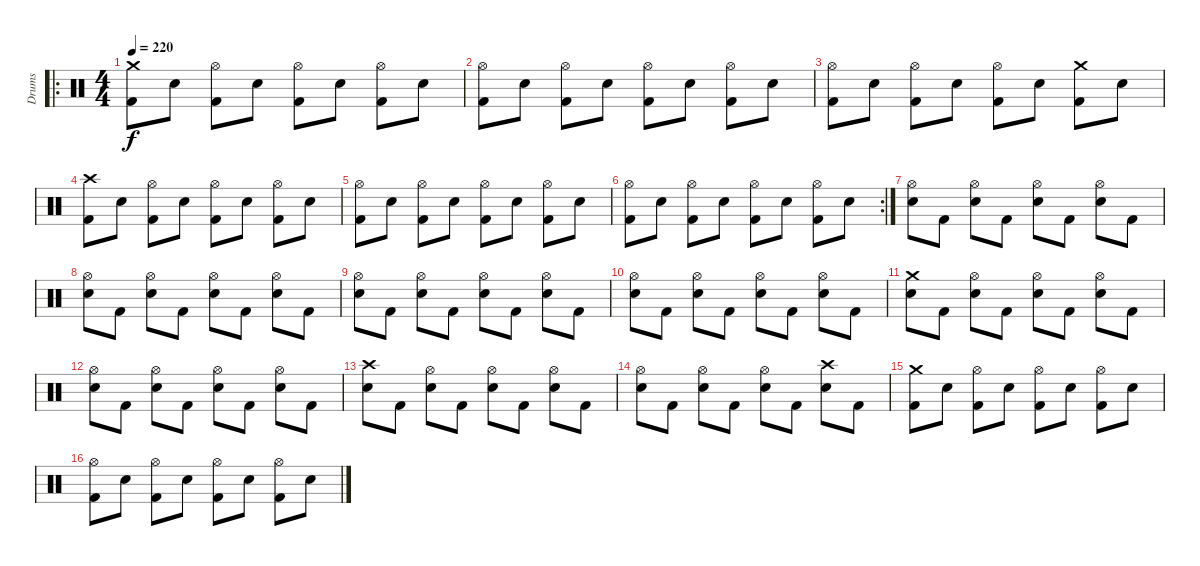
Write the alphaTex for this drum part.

\track ("Drums" "Drums") {instrument percussion}
\staff {score}
\articulation defaults
\ro
\ts (4 4)
\tempo 220
\clef neutral
\ks c
("Crash medium (hit)" "Kick (hit) 2").8{dy f} "Electric Snare (hit)".8 ("Hi-Hat (open)" "Kick (hit) 2").8 "Electric Snare (hit)".8 ("Hi-Hat (open)" "Kick (hit) 2").8 "Electric Snare (hit)".8 ("Hi-Hat (open)" "Kick (hit) 2").8 "Electric Snare (hit)".8 |
("Kick (hit) 2" "Hi-Hat (open)").8 "Electric Snare (hit)".8 ("Kick (hit) 2" "Hi-Hat (open)").8 "Electric Snare (hit)".8 ("Kick (hit) 2" "Hi-Hat (open)").8 "Electric Snare (hit)".8 ("Kick (hit) 2" "Hi-Hat (open)").8 "Electric Snare (hit)".8 |
("Kick (hit) 2" "Hi-Hat (open)").8 "Electric Snare (hit)".8 ("Kick (hit) 2" "Hi-Hat (open)").8 "Electric Snare (hit)".8 ("Kick (hit) 2" "Hi-Hat (open)").8 "Electric Snare (hit)".8 ("Kick (hit) 2" "Crash medium (hit)").8 "Electric Snare (hit)".8 |
("Kick (hit) 2" "Crash high (hit)").8 "Electric Snare (hit)".8 ("Kick (hit) 2" "Hi-Hat (open)").8 "Electric Snare (hit)".8 ("Kick (hit) 2" "Hi-Hat (open)").8 "Electric Snare (hit)".8 ("Kick (hit) 2" "Hi-Hat (open)").8 "Electric Snare (hit)".8 |
("Kick (hit) 2" "Hi-Hat (open)").8 "Electric Snare (hit)".8 ("Kick (hit) 2" "Hi-Hat (open)").8 "Electric Snare (hit)".8 ("Kick (hit) 2" "Hi-Hat (open)").8 "Electric Snare (hit)".8 ("Kick (hit) 2" "Hi-Hat (open)").8 "Electric Snare (hit)".8 |
\rc 2
("Kick (hit) 2" "Hi-Hat (open)").8 "Electric Snare (hit)".8 ("Kick (hit) 2" "Hi-Hat (open)").8 "Electric Snare (hit)".8 ("Kick (hit) 2" "Hi-Hat (open)").8 "Electric Snare (hit)".8 ("Kick (hit) 2" "Hi-Hat (open)").8 "Electric Snare (hit)".8 |
("Electric Snare (hit)" "Hi-Hat (open)").8 "Kick (hit) 2".8 ("Electric Snare (hit)" "Hi-Hat (open)").8 "Kick (hit) 2".8 ("Electric Snare (hit)" "Hi-Hat (open)").8 "Kick (hit) 2".8 ("Electric Snare (hit)" "Hi-Hat (open)").8 "Kick (hit) 2".8 |
("Electric Snare (hit)" "Hi-Hat (open)").8 "Kick (hit) 2".8 ("Electric Snare (hit)" "Hi-Hat (open)").8 "Kick (hit) 2".8 ("Electric Snare (hit)" "Hi-Hat (open)").8 "Kick (hit) 2".8 ("Electric Snare (hit)" "Hi-Hat (open)").8 "Kick (hit) 2".8 |
("Electric Snare (hit)" "Hi-Hat (open)").8 "Kick (hit) 2".8 ("Electric Snare (hit)" "Hi-Hat (open)").8 "Kick (hit) 2".8 ("Electric Snare (hit)" "Hi-Hat (open)").8 "Kick (hit) 2".8 ("Electric Snare (hit)" "Hi-Hat (open)").8 "Kick (hit) 2".8 |
("Electric Snare (hit)" "Hi-Hat (open)").8 "Kick (hit) 2".8 ("Electric Snare (hit)" "Hi-Hat (open)").8 "Kick (hit) 2".8 ("Electric Snare (hit)" "Hi-Hat (open)").8 "Kick (hit) 2".8 ("Electric Snare (hit)" "Hi-Hat (open)").8 "Kick (hit) 2".8 |
("Electric Snare (hit)" "Crash medium (hit)").8 "Kick (hit) 2".8 ("Electric Snare (hit)" "Hi-Hat (open)").8 "Kick (hit) 2".8 ("Electric Snare (hit)" "Hi-Hat (open)").8 "Kick (hit) 2".8 ("Electric Snare (hit)" "Hi-Hat (open)").8 "Kick (hit) 2".8 |
("Electric Snare (hit)" "Hi-Hat (open)").8 "Kick (hit) 2".8 ("Electric Snare (hit)" "Hi-Hat (open)").8 "Kick (hit) 2".8 ("Electric Snare (hit)" "Hi-Hat (open)").8 "Kick (hit) 2".8 ("Electric Snare (hit)" "Hi-Hat (open)").8 "Kick (hit) 2".8 |
("Electric Snare (hit)" "Crash high (hit)").8 "Kick (hit) 2".8 ("Electric Snare (hit)" "Hi-Hat (open)").8 "Kick (hit) 2".8 ("Electric Snare (hit)" "Hi-Hat (open)").8 "Kick (hit) 2".8 ("Electric Snare (hit)" "Hi-Hat (open)").8 "Kick (hit) 2".8 |
("Electric Snare (hit)" "Hi-Hat (open)").8 "Kick (hit) 2".8 ("Electric Snare (hit)" "Hi-Hat (open)").8 "Kick (hit) 2".8 ("Electric Snare (hit)" "Hi-Hat (open)").8 "Kick (hit) 2".8 ("Electric Snare (hit)" "Crash high (hit)").8 "Kick (hit) 2".8 |
("Kick (hit) 2" "Crash medium (hit)").8 "Electric Snare (hit)".8 ("Kick (hit) 2" "Hi-Hat (open)").8 "Electric Snare (hit)".8 ("Kick (hit) 2" "Hi-Hat (open)").8 "Electric Snare (hit)".8 ("Kick (hit) 2" "Hi-Hat (open)").8 "Electric Snare (hit)".8 |
("Kick (hit) 2" "Hi-Hat (open)").8 "Electric Snare (hit)".8 ("Kick (hit) 2" "Hi-Hat (open)").8 "Electric Snare (hit)".8 ("Kick (hit) 2" "Hi-Hat (open)").8 "Electric Snare (hit)".8 ("Kick (hit) 2" "Hi-Hat (open)").8 "Electric Snare (hit)".8
